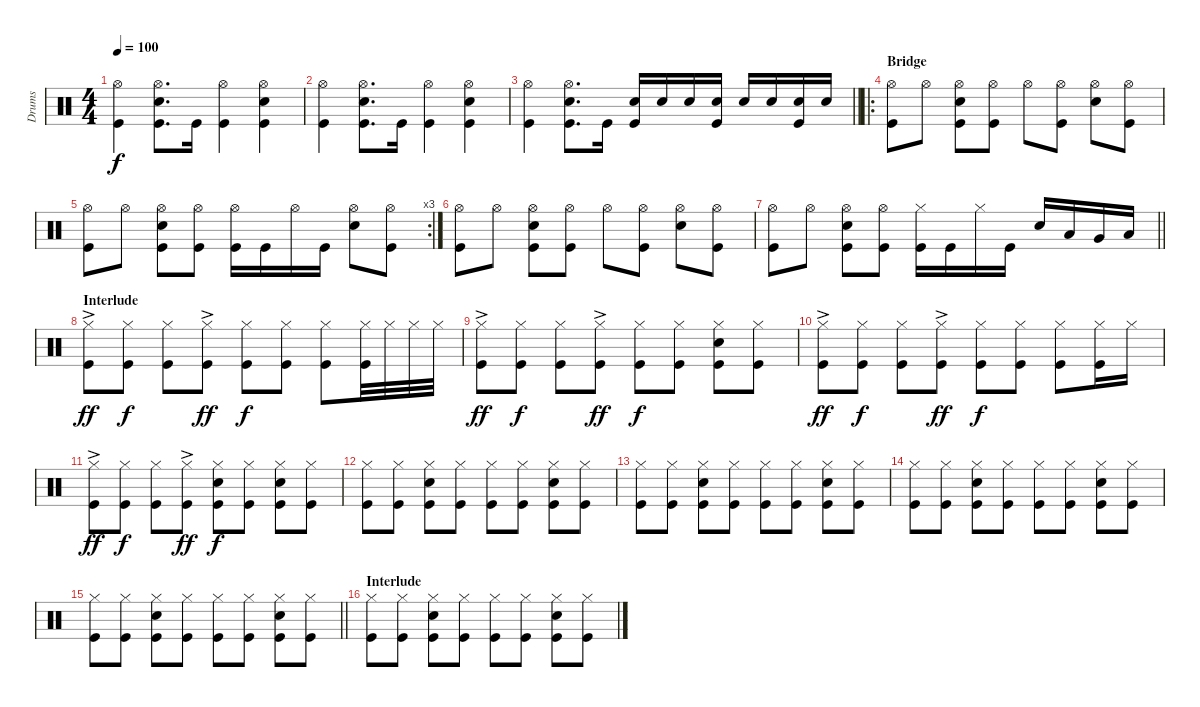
\track ("Drums" "Drums") {instrument percussion}
\staff {score}
\articulation defaults
\ts (4 4)
\tempo 100
\clef neutral
\ks c
("Hi-Hat (open)" "Kick (hit)").4{dy f} ("Snare (hit) 2" "Hi-Hat (open)" "Kick (hit)").8{d} "Kick (hit)".16 ("Hi-Hat (open)" "Kick (hit)").4 ("Snare (hit) 2" "Hi-Hat (open)" "Kick (hit)").4 |
("Hi-Hat (open)" "Kick (hit)").4 ("Snare (hit) 2" "Hi-Hat (open)" "Kick (hit)").8{d} "Kick (hit)".16 ("Hi-Hat (open)" "Kick (hit)").4 ("Snare (hit) 2" "Hi-Hat (open)" "Kick (hit)").4 |
\barLineRight lightlight
("Hi-Hat (open)" "Kick (hit)").4 ("Snare (hit) 2" "Hi-Hat (open)" "Kick (hit)").8{d} "Kick (hit)".16 ("Snare (hit) 2" "Kick (hit)").16 "Snare (hit) 2".16 "Snare (hit) 2".16 ("Snare (hit) 2" "Kick (hit)").16 "Snare (hit) 2".16 "Snare (hit) 2".16 ("Snare (hit) 2" "Kick (hit)").16 "Snare (hit) 2".16 |
\ro
\section ("" "Bridge")
("Hi-Hat (open)" "Kick (hit)").8 "Hi-Hat (open)".8 ("Snare (hit) 2" "Hi-Hat (open)" "Kick (hit)").8 ("Hi-Hat (open)" "Kick (hit)").8 "Hi-Hat (open)".8 ("Hi-Hat (open)" "Kick (hit)").8 ("Snare (hit) 2" "Hi-Hat (open)").8 ("Hi-Hat (open)" "Kick (hit)").8 |
\rc 3
("Hi-Hat (open)" "Kick (hit)").8 "Hi-Hat (open)".8 ("Snare (hit) 2" "Hi-Hat (open)" "Kick (hit)").8 ("Hi-Hat (open)" "Kick (hit)").8 ("Hi-Hat (open)" "Kick (hit)").16 "Kick (hit)".16 "Hi-Hat (open)".16 "Kick (hit)".16 ("Snare (hit) 2" "Hi-Hat (open)").8 ("Hi-Hat (open)" "Kick (hit)").8 |
("Hi-Hat (open)" "Kick (hit)").8 "Hi-Hat (open)".8 ("Snare (hit) 2" "Hi-Hat (open)" "Kick (hit)").8 ("Hi-Hat (open)" "Kick (hit)").8 "Hi-Hat (open)".8 ("Hi-Hat (open)" "Kick (hit)").8 ("Snare (hit) 2" "Hi-Hat (open)").8 ("Hi-Hat (open)" "Kick (hit)").8 |
\barLineRight lightlight
("Hi-Hat (open)" "Kick (hit)").8 "Hi-Hat (open)".8 ("Snare (hit) 2" "Hi-Hat (open)" "Kick (hit)").8 ("Hi-Hat (open)" "Kick (hit)").8 ("Hi-Hat (closed)" "Kick (hit)").16 "Kick (hit)".16 "Hi-Hat (closed)".16 "Kick (hit)".16 "Snare (hit) 2".16 "Low Tom (hit)".16 "Very Low Tom (hit)".16 "Low Floor Tom (hit)".16 |
\section ("" "Interlude")
("Hi-Hat (closed)"{ac} "Kick (hit)"{ac}).8{dy ff} ("Hi-Hat (closed)" "Kick (hit)").8{dy f} ("Hi-Hat (closed)" "Kick (hit)").8 ("Hi-Hat (closed)"{ac} "Kick (hit)"{ac}).8{dy ff} ("Hi-Hat (closed)" "Kick (hit)").8{dy f} ("Hi-Hat (closed)" "Kick (hit)").8 ("Hi-Hat (closed)" "Kick (hit)").8 ("Hi-Hat (closed)" "Kick (hit)").32 "Hi-Hat (closed)".32 "Hi-Hat (closed)".32 "Hi-Hat (closed)".32 |
("Hi-Hat (closed)"{ac} "Kick (hit)"{ac}).8{dy ff} ("Hi-Hat (closed)" "Kick (hit)").8{dy f} ("Hi-Hat (closed)" "Kick (hit)").8 ("Hi-Hat (closed)"{ac} "Kick (hit)"{ac}).8{dy ff} ("Hi-Hat (closed)" "Kick (hit)").8{dy f} ("Hi-Hat (closed)" "Kick (hit)").8 ("Snare (hit) 2" "Hi-Hat (closed)" "Kick (hit)").8 ("Hi-Hat (closed)" "Kick (hit)").8 |
("Hi-Hat (closed)"{ac} "Kick (hit)"{ac}).8{dy ff} ("Hi-Hat (closed)" "Kick (hit)").8{dy f} ("Hi-Hat (closed)" "Kick (hit)").8 ("Hi-Hat (closed)"{ac} "Kick (hit)"{ac}).8{dy ff} ("Hi-Hat (closed)" "Kick (hit)").8{dy f} ("Hi-Hat (closed)" "Kick (hit)").8 ("Hi-Hat (closed)" "Kick (hit)").8 ("Hi-Hat (closed)" "Kick (hit)").16 "Hi-Hat (closed)".16 |
("Hi-Hat (closed)"{ac} "Kick (hit)"{ac}).8{dy ff} ("Hi-Hat (closed)" "Kick (hit)").8{dy f} ("Hi-Hat (closed)" "Kick (hit)").8 ("Hi-Hat (closed)"{ac} "Kick (hit)"{ac}).8{dy ff} ("Snare (hit) 2" "Hi-Hat (closed)" "Kick (hit)").8{dy f} ("Hi-Hat (closed)" "Kick (hit)").8 ("Snare (hit) 2" "Hi-Hat (closed)" "Kick (hit)").8 ("Hi-Hat (closed)" "Kick (hit)").8 |
("Hi-Hat (closed)" "Kick (hit)").8 ("Hi-Hat (closed)" "Kick (hit)").8 ("Snare (hit) 2" "Hi-Hat (closed)" "Kick (hit)").8 ("Hi-Hat (closed)" "Kick (hit)").8 ("Hi-Hat (closed)" "Kick (hit)").8 ("Hi-Hat (closed)" "Kick (hit)").8 ("Snare (hit) 2" "Hi-Hat (closed)" "Kick (hit)").8 ("Hi-Hat (closed)" "Kick (hit)").8 |
("Hi-Hat (closed)" "Kick (hit)").8 ("Hi-Hat (closed)" "Kick (hit)").8 ("Snare (hit) 2" "Hi-Hat (closed)" "Kick (hit)").8 ("Hi-Hat (closed)" "Kick (hit)").8 ("Hi-Hat (closed)" "Kick (hit)").8 ("Hi-Hat (closed)" "Kick (hit)").8 ("Snare (hit) 2" "Hi-Hat (closed)" "Kick (hit)").8 ("Hi-Hat (closed)" "Kick (hit)").8 |
("Hi-Hat (closed)" "Kick (hit)").8 ("Hi-Hat (closed)" "Kick (hit)").8 ("Snare (hit) 2" "Hi-Hat (closed)" "Kick (hit)").8 ("Hi-Hat (closed)" "Kick (hit)").8 ("Hi-Hat (closed)" "Kick (hit)").8 ("Hi-Hat (closed)" "Kick (hit)").8 ("Snare (hit) 2" "Hi-Hat (closed)" "Kick (hit)").8 ("Hi-Hat (closed)" "Kick (hit)").8 |
\barLineRight lightlight
("Hi-Hat (closed)" "Kick (hit)").8 ("Hi-Hat (closed)" "Kick (hit)").8 ("Snare (hit) 2" "Hi-Hat (closed)" "Kick (hit)").8 ("Hi-Hat (closed)" "Kick (hit)").8 ("Hi-Hat (closed)" "Kick (hit)").8 ("Hi-Hat (closed)" "Kick (hit)").8 ("Snare (hit) 2" "Hi-Hat (closed)" "Kick (hit)").8 ("Hi-Hat (closed)" "Kick (hit)").8 |
\section ("" "Interlude")
("Hi-Hat (closed)" "Kick (hit)").8 ("Hi-Hat (closed)" "Kick (hit)").8 ("Snare (hit) 2" "Hi-Hat (closed)" "Kick (hit)").8 ("Hi-Hat (closed)" "Kick (hit)").8 ("Hi-Hat (closed)" "Kick (hit)").8 ("Hi-Hat (closed)" "Kick (hit)").8 ("Snare (hit) 2" "Hi-Hat (closed)" "Kick (hit)").8 ("Hi-Hat (closed)" "Kick (hit)").8
